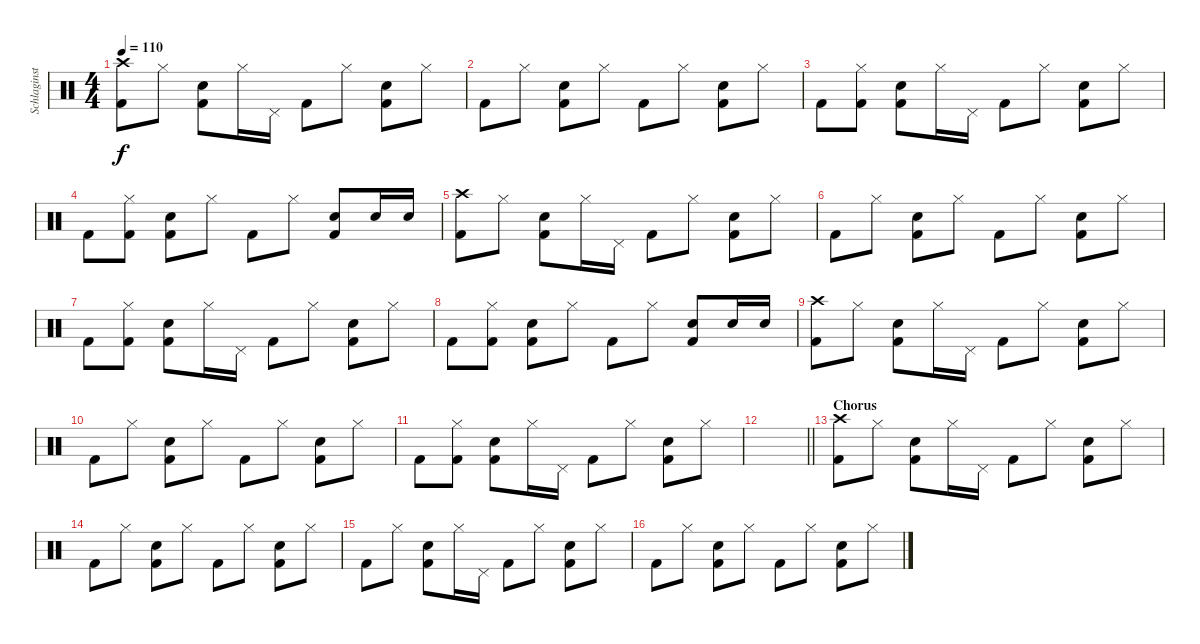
\track ("Schlaginstrumente - Auswahl" "Schlaginst") {instrument percussion}
\staff {score}
\articulation defaults
\ts (4 4)
\tempo 110
\clef neutral
\ks c
("Crash high (hit)" "Kick (hit) 2").8{dy f} "Hi-Hat (closed)".8 ("Snare (hit) 2" "Kick (hit) 2").8 "Hi-Hat (closed)".16 "Pedal Hi-Hat (hit)".16 "Kick (hit) 2".8 "Hi-Hat (closed)".8 ("Snare (hit) 2" "Kick (hit) 2").8 "Hi-Hat (closed)".8 |
"Kick (hit) 2".8 "Hi-Hat (closed)".8 ("Snare (hit) 2" "Kick (hit) 2").8 "Hi-Hat (closed)".8 "Kick (hit) 2".8 "Hi-Hat (closed)".8 ("Snare (hit) 2" "Kick (hit) 2").8 "Hi-Hat (closed)".8 |
"Kick (hit) 2".8 ("Hi-Hat (closed)" "Kick (hit) 2").8 ("Snare (hit) 2" "Kick (hit) 2").8 "Hi-Hat (closed)".16 "Pedal Hi-Hat (hit)".16 "Kick (hit) 2".8 "Hi-Hat (closed)".8 ("Snare (hit) 2" "Kick (hit) 2").8 "Hi-Hat (closed)".8 |
"Kick (hit) 2".8 ("Hi-Hat (closed)" "Kick (hit) 2").8 ("Snare (hit) 2" "Kick (hit) 2").8 "Hi-Hat (closed)".8 "Kick (hit) 2".8 "Hi-Hat (closed)".8 ("Snare (hit) 2" "Kick (hit) 2").8 "Snare (hit) 2".16 "Snare (hit) 2".16 |
("Crash high (hit)" "Kick (hit) 2").8 "Hi-Hat (closed)".8 ("Snare (hit) 2" "Kick (hit) 2").8 "Hi-Hat (closed)".16 "Pedal Hi-Hat (hit)".16 "Kick (hit) 2".8 "Hi-Hat (closed)".8 ("Snare (hit) 2" "Kick (hit) 2").8 "Hi-Hat (closed)".8 |
"Kick (hit) 2".8 "Hi-Hat (closed)".8 ("Snare (hit) 2" "Kick (hit) 2").8 "Hi-Hat (closed)".8 "Kick (hit) 2".8 "Hi-Hat (closed)".8 ("Snare (hit) 2" "Kick (hit) 2").8 "Hi-Hat (closed)".8 |
"Kick (hit) 2".8 ("Hi-Hat (closed)" "Kick (hit) 2").8 ("Snare (hit) 2" "Kick (hit) 2").8 "Hi-Hat (closed)".16 "Pedal Hi-Hat (hit)".16 "Kick (hit) 2".8 "Hi-Hat (closed)".8 ("Snare (hit) 2" "Kick (hit) 2").8 "Hi-Hat (closed)".8 |
"Kick (hit) 2".8 ("Hi-Hat (closed)" "Kick (hit) 2").8 ("Snare (hit) 2" "Kick (hit) 2").8 "Hi-Hat (closed)".8 "Kick (hit) 2".8 "Hi-Hat (closed)".8 ("Snare (hit) 2" "Kick (hit) 2").8 "Snare (hit) 2".16 "Snare (hit) 2".16 |
("Crash high (hit)" "Kick (hit) 2").8 "Hi-Hat (closed)".8 ("Snare (hit) 2" "Kick (hit) 2").8 "Hi-Hat (closed)".16 "Pedal Hi-Hat (hit)".16 "Kick (hit) 2".8 "Hi-Hat (closed)".8 ("Snare (hit) 2" "Kick (hit) 2").8 "Hi-Hat (closed)".8 |
"Kick (hit) 2".8 "Hi-Hat (closed)".8 ("Snare (hit) 2" "Kick (hit) 2").8 "Hi-Hat (closed)".8 "Kick (hit) 2".8 "Hi-Hat (closed)".8 ("Snare (hit) 2" "Kick (hit) 2").8 "Hi-Hat (closed)".8 |
"Kick (hit) 2".8 ("Hi-Hat (closed)" "Kick (hit) 2").8 ("Snare (hit) 2" "Kick (hit) 2").8 "Hi-Hat (closed)".16 "Pedal Hi-Hat (hit)".16 "Kick (hit) 2".8 "Hi-Hat (closed)".8 ("Snare (hit) 2" "Kick (hit) 2").8 "Hi-Hat (closed)".8 |
\barLineRight lightlight
|
\section ("" "Chorus")
("Crash high (hit)" "Kick (hit) 2").8 "Hi-Hat (closed)".8 ("Snare (hit) 2" "Kick (hit) 2").8 "Hi-Hat (closed)".16 "Pedal Hi-Hat (hit)".16 "Kick (hit) 2".8 "Hi-Hat (closed)".8 ("Snare (hit) 2" "Kick (hit) 2").8 "Hi-Hat (closed)".8 |
"Kick (hit) 2".8 "Hi-Hat (closed)".8 ("Snare (hit) 2" "Kick (hit) 2").8 "Hi-Hat (closed)".8 "Kick (hit) 2".8 "Hi-Hat (closed)".8 ("Snare (hit) 2" "Kick (hit) 2").8 "Hi-Hat (closed)".8 |
"Kick (hit) 2".8 "Hi-Hat (closed)".8 ("Snare (hit) 2" "Kick (hit) 2").8 "Hi-Hat (closed)".16 "Pedal Hi-Hat (hit)".16 "Kick (hit) 2".8 "Hi-Hat (closed)".8 ("Snare (hit) 2" "Kick (hit) 2").8 "Hi-Hat (closed)".8 |
"Kick (hit) 2".8 "Hi-Hat (closed)".8 ("Snare (hit) 2" "Kick (hit) 2").8 "Hi-Hat (closed)".8 "Kick (hit) 2".8 "Hi-Hat (closed)".8 ("Snare (hit) 2" "Kick (hit) 2").8 "Hi-Hat (closed)".8
